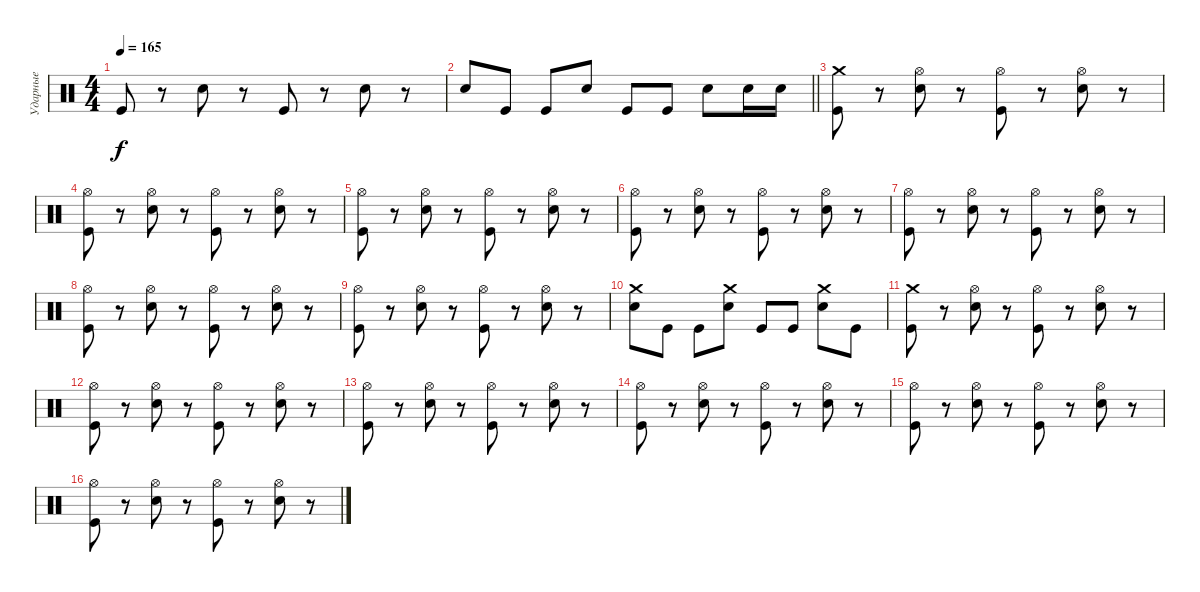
\track ("Ударные" "Ударные") {instrument percussion}
\staff {score}
\articulation defaults
\ts (4 4)
\tempo 165
\clef neutral
\ks c "Kick (hit)".8{dy f}
r.8 "Electric Snare (hit)".8 r.8 "Kick (hit)".8 r.8 "Electric Snare (hit)".8 r.8 |
\barLineRight lightlight "Electric Snare (hit)".8 "Kick (hit)".8 "Kick (hit)".8 "Electric Snare (hit)".8 "Kick (hit)".8 "Kick (hit)".8 "Electric Snare (hit)".8 "Electric Snare (hit)".16 "Electric Snare (hit)".16
|
\section ("" " ")
("Crash medium (hit)" "Kick (hit)").8 r.8 ("Hi-Hat (open)" "Electric Snare (hit)").8 r.8 ("Hi-Hat (open)" "Kick (hit)").8 r.8 ("Hi-Hat (open)" "Electric Snare (hit)").8 r.8 |
("Hi-Hat (open)" "Kick (hit)").8 r.8 ("Hi-Hat (open)" "Electric Snare (hit)").8 r.8 ("Hi-Hat (open)" "Kick (hit)").8 r.8 ("Hi-Hat (open)" "Electric Snare (hit)").8 r.8 |
("Hi-Hat (open)" "Kick (hit)").8 r.8 ("Hi-Hat (open)" "Electric Snare (hit)").8 r.8 ("Hi-Hat (open)" "Kick (hit)").8 r.8 ("Hi-Hat (open)" "Electric Snare (hit)").8 r.8 |
("Hi-Hat (open)" "Kick (hit)").8 r.8 ("Hi-Hat (open)" "Electric Snare (hit)").8 r.8 ("Hi-Hat (open)" "Kick (hit)").8 r.8 ("Hi-Hat (open)" "Electric Snare (hit)").8 r.8 |
("Hi-Hat (open)" "Kick (hit)").8 r.8 ("Hi-Hat (open)" "Electric Snare (hit)").8 r.8 ("Hi-Hat (open)" "Kick (hit)").8 r.8 ("Hi-Hat (open)" "Electric Snare (hit)").8 r.8 |
("Hi-Hat (open)" "Kick (hit)").8 r.8 ("Hi-Hat (open)" "Electric Snare (hit)").8 r.8 ("Hi-Hat (open)" "Kick (hit)").8 r.8 ("Hi-Hat (open)" "Electric Snare (hit)").8 r.8 |
("Hi-Hat (open)" "Kick (hit)").8 r.8 ("Hi-Hat (open)" "Electric Snare (hit)").8 r.8 ("Hi-Hat (open)" "Kick (hit)").8 r.8 ("Hi-Hat (open)" "Electric Snare (hit)").8 r.8 |
("Crash medium (hit)" "Electric Snare (hit)").8 "Kick (hit)".8 "Kick (hit)".8 ("Crash medium (hit)" "Electric Snare (hit)").8 "Kick (hit)".8 "Kick (hit)".8 ("Crash medium (hit)" "Electric Snare (hit)").8 "Kick (hit)".8 |
("Crash medium (hit)" "Kick (hit)").8 r.8 ("Hi-Hat (open)" "Electric Snare (hit)").8 r.8 ("Hi-Hat (open)" "Kick (hit)").8 r.8 ("Hi-Hat (open)" "Electric Snare (hit)").8 r.8 |
("Hi-Hat (open)" "Kick (hit)").8 r.8 ("Hi-Hat (open)" "Electric Snare (hit)").8 r.8 ("Hi-Hat (open)" "Kick (hit)").8 r.8 ("Hi-Hat (open)" "Electric Snare (hit)").8 r.8 |
("Hi-Hat (open)" "Kick (hit)").8 r.8 ("Hi-Hat (open)" "Electric Snare (hit)").8 r.8 ("Hi-Hat (open)" "Kick (hit)").8 r.8 ("Hi-Hat (open)" "Electric Snare (hit)").8 r.8 |
("Hi-Hat (open)" "Kick (hit)").8 r.8 ("Hi-Hat (open)" "Electric Snare (hit)").8 r.8 ("Hi-Hat (open)" "Kick (hit)").8 r.8 ("Hi-Hat (open)" "Electric Snare (hit)").8 r.8 |
("Hi-Hat (open)" "Kick (hit)").8 r.8 ("Hi-Hat (open)" "Electric Snare (hit)").8 r.8 ("Hi-Hat (open)" "Kick (hit)").8 r.8 ("Hi-Hat (open)" "Electric Snare (hit)").8 r.8 |
("Hi-Hat (open)" "Kick (hit)").8 r.8 ("Hi-Hat (open)" "Electric Snare (hit)").8 r.8 ("Hi-Hat (open)" "Kick (hit)").8 r.8 ("Hi-Hat (open)" "Electric Snare (hit)").8 r.8
